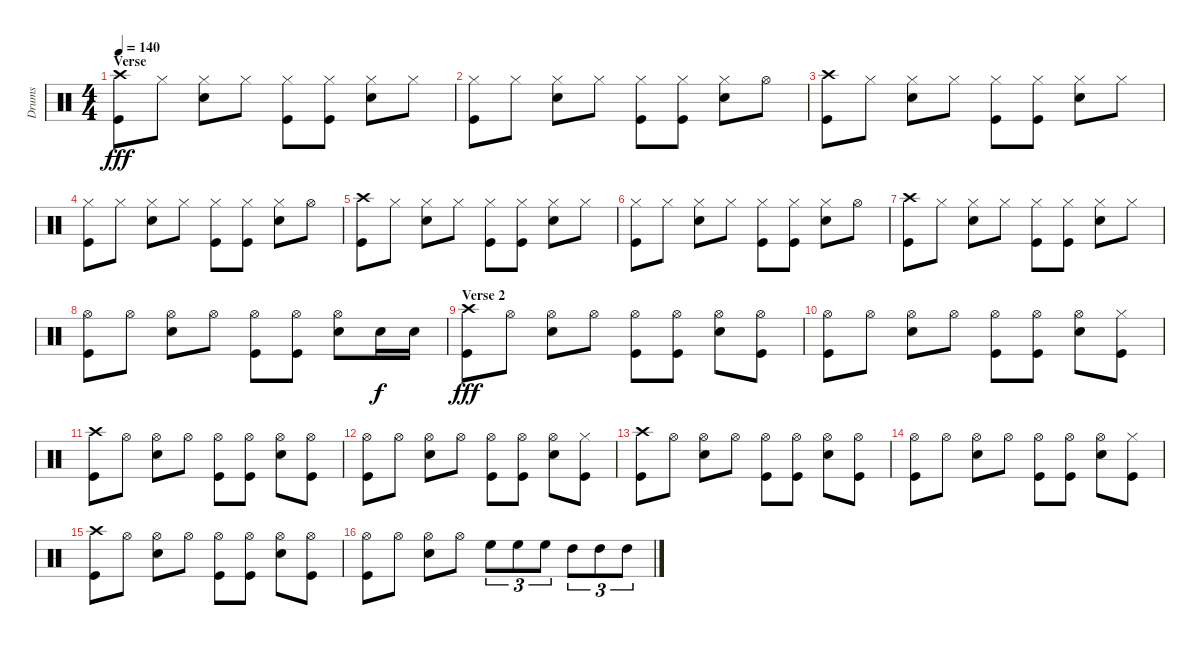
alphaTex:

\track ("Drums" "Drums") {instrument percussion}
\staff {score}
\articulation defaults
\ts (4 4)
\section ("" "Verse")
\tempo 140
\clef neutral
\ks c
("Crash high (hit)" "Kick (hit)").8{dy fff} "Hi-Hat (closed)".8 ("Hi-Hat (closed)" "Snare (hit) 2").8 "Hi-Hat (closed)".8 ("Hi-Hat (closed)" "Kick (hit)").8 ("Hi-Hat (closed)" "Kick (hit)").8 ("Hi-Hat (closed)" "Snare (hit) 2").8 "Hi-Hat (closed)".8 |
("Hi-Hat (closed)" "Kick (hit)").8 "Hi-Hat (closed)".8 ("Hi-Hat (closed)" "Snare (hit) 2").8 "Hi-Hat (closed)".8 ("Hi-Hat (closed)" "Kick (hit)").8 ("Hi-Hat (closed)" "Kick (hit)").8 ("Hi-Hat (closed)" "Snare (hit) 2").8 "Hi-Hat (open)".8 |
("Crash high (hit)" "Kick (hit)").8 "Hi-Hat (closed)".8 ("Hi-Hat (closed)" "Snare (hit) 2").8 "Hi-Hat (closed)".8 ("Hi-Hat (closed)" "Kick (hit)").8 ("Hi-Hat (closed)" "Kick (hit)").8 ("Hi-Hat (closed)" "Snare (hit) 2").8 "Hi-Hat (closed)".8 |
("Hi-Hat (closed)" "Kick (hit)").8 "Hi-Hat (closed)".8 ("Hi-Hat (closed)" "Snare (hit) 2").8 "Hi-Hat (closed)".8 ("Hi-Hat (closed)" "Kick (hit)").8 ("Hi-Hat (closed)" "Kick (hit)").8 ("Hi-Hat (closed)" "Snare (hit) 2").8 "Hi-Hat (open)".8 |
("Crash high (hit)" "Kick (hit)").8 "Hi-Hat (closed)".8 ("Hi-Hat (closed)" "Snare (hit) 2").8 "Hi-Hat (closed)".8 ("Hi-Hat (closed)" "Kick (hit)").8 ("Hi-Hat (closed)" "Kick (hit)").8 ("Hi-Hat (closed)" "Snare (hit) 2").8 "Hi-Hat (closed)".8 |
("Hi-Hat (closed)" "Kick (hit)").8 "Hi-Hat (closed)".8 ("Hi-Hat (closed)" "Snare (hit) 2").8 "Hi-Hat (closed)".8 ("Hi-Hat (closed)" "Kick (hit)").8 ("Hi-Hat (closed)" "Kick (hit)").8 ("Hi-Hat (closed)" "Snare (hit) 2").8 "Hi-Hat (open)".8 |
("Crash high (hit)" "Kick (hit)").8 "Hi-Hat (closed)".8 ("Hi-Hat (closed)" "Snare (hit) 2").8 "Hi-Hat (closed)".8 ("Hi-Hat (closed)" "Kick (hit)").8 ("Hi-Hat (closed)" "Kick (hit)").8 ("Hi-Hat (closed)" "Snare (hit) 2").8 "Hi-Hat (closed)".8 |
("Hi-Hat (open)" "Kick (hit)").8 "Hi-Hat (open)".8 ("Hi-Hat (open)" "Snare (hit) 2").8 "Hi-Hat (open)".8 ("Hi-Hat (open)" "Kick (hit)").8 ("Hi-Hat (open)" "Kick (hit)").8 ("Hi-Hat (open)" "Snare (hit) 2").8 "Snare (hit) 2".16{dy f} "Snare (hit) 2".16 |
\section ("" "Verse 2")
("Crash high (hit)" "Kick (hit)").8{dy fff} "Hi-Hat (open)".8 ("Hi-Hat (open)" "Snare (hit) 2").8 "Hi-Hat (open)".8 ("Hi-Hat (open)" "Kick (hit)").8 ("Hi-Hat (open)" "Kick (hit)").8 ("Hi-Hat (open)" "Snare (hit) 2").8 ("Hi-Hat (open)" "Kick (hit)").8 |
("Hi-Hat (open)" "Kick (hit)").8 "Hi-Hat (open)".8 ("Hi-Hat (open)" "Snare (hit) 2").8 "Hi-Hat (open)".8 ("Hi-Hat (open)" "Kick (hit)").8 ("Hi-Hat (open)" "Kick (hit)").8 ("Hi-Hat (open)" "Snare (hit) 2").8 ("Hi-Hat (closed)" "Kick (hit)").8 |
("Crash high (hit)" "Kick (hit)").8 "Hi-Hat (open)".8 ("Hi-Hat (open)" "Snare (hit) 2").8 "Hi-Hat (open)".8 ("Hi-Hat (open)" "Kick (hit)").8 ("Hi-Hat (open)" "Kick (hit)").8 ("Hi-Hat (open)" "Snare (hit) 2").8 ("Hi-Hat (open)" "Kick (hit)").8 |
("Hi-Hat (open)" "Kick (hit)").8 "Hi-Hat (open)".8 ("Hi-Hat (open)" "Snare (hit) 2").8 "Hi-Hat (open)".8 ("Hi-Hat (open)" "Kick (hit)").8 ("Hi-Hat (open)" "Kick (hit)").8 ("Hi-Hat (open)" "Snare (hit) 2").8 ("Hi-Hat (closed)" "Kick (hit)").8 |
("Crash high (hit)" "Kick (hit)").8 "Hi-Hat (open)".8 ("Hi-Hat (open)" "Snare (hit) 2").8 "Hi-Hat (open)".8 ("Hi-Hat (open)" "Kick (hit)").8 ("Hi-Hat (open)" "Kick (hit)").8 ("Hi-Hat (open)" "Snare (hit) 2").8 ("Hi-Hat (open)" "Kick (hit)").8 |
("Hi-Hat (open)" "Kick (hit)").8 "Hi-Hat (open)".8 ("Hi-Hat (open)" "Snare (hit) 2").8 "Hi-Hat (open)".8 ("Hi-Hat (open)" "Kick (hit)").8 ("Hi-Hat (open)" "Kick (hit)").8 ("Hi-Hat (open)" "Snare (hit) 2").8 ("Hi-Hat (closed)" "Kick (hit)").8 |
("Crash high (hit)" "Kick (hit)").8 "Hi-Hat (open)".8 ("Hi-Hat (open)" "Snare (hit) 2").8 "Hi-Hat (open)".8 ("Hi-Hat (open)" "Kick (hit)").8 ("Hi-Hat (open)" "Kick (hit)").8 ("Hi-Hat (open)" "Snare (hit) 2").8 ("Hi-Hat (open)" "Kick (hit)").8 |
("Hi-Hat (open)" "Kick (hit)").8 "Hi-Hat (open)".8 ("Hi-Hat (open)" "Snare (hit) 2").8 "Hi-Hat (open)".8 "High Floor Tom (hit)".8{tu (3 2)} "High Floor Tom (hit)".8{tu (3 2)} "High Floor Tom (hit)".8{tu (3 2)} "High Tom (hit)".8{tu (3 2)} "High Tom (hit)".8{tu (3 2)} "High Tom (hit)".8{tu (3 2)}
